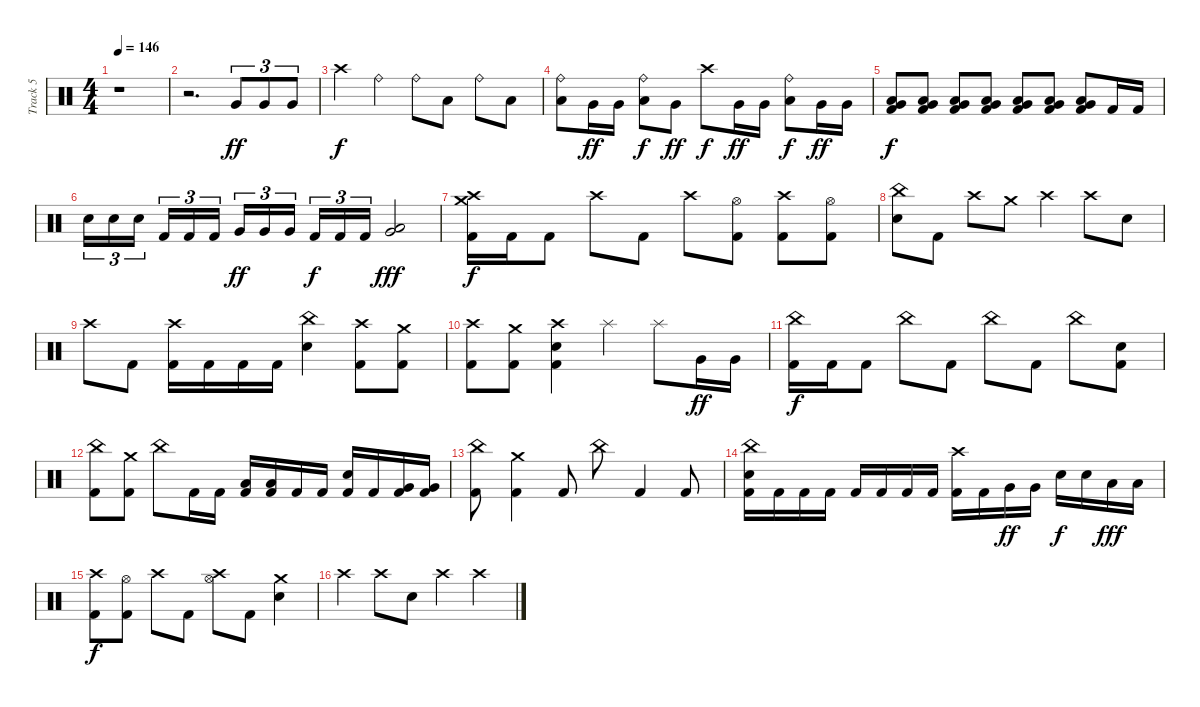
\track ("Track 5" "Track 5") {instrument percussion}
\staff {score}
\articulation defaults
\ts (4 4)
\tempo 146
\clef neutral
\ks c
r.1{dy ff} |
r.2{d} "Very Low Tom (hit)".8{tu (3 2)} "Very Low Tom (hit)".8{tu (3 2)} "Very Low Tom (hit)".8{tu (3 2)} |
"Crash high (hit)".4{dy f} "Ride (bell)".4 "Ride (bell)".8 "Low Tom (hit)".8 "Ride (bell)".8 "Low Tom (hit)".8 |
("Low Tom (hit)" "Ride (bell)").8 "Very Low Tom (hit)".16{dy ff} "Very Low Tom (hit)".16 ("Low Tom (hit)" "Ride (bell)").8{dy f} "Very Low Tom (hit)".8{dy ff} "Crash high (hit)".8{dy f} "Very Low Tom (hit)".16{dy ff} "Very Low Tom (hit)".16 ("Low Tom (hit)" "Ride (bell)").8{dy f} "Very Low Tom (hit)".16{dy ff} "Very Low Tom (hit)".16 |
("Very Low Tom (hit)" "Low Floor Tom (hit)" "Kick (hit) 2").8{dy f} ("Very Low Tom (hit)" "Low Floor Tom (hit)" "Kick (hit) 2").8 ("Very Low Tom (hit)" "Low Floor Tom (hit)" "Kick (hit) 2").8 ("Very Low Tom (hit)" "Low Floor Tom (hit)" "Kick (hit) 2").8 ("Very Low Tom (hit)" "Low Floor Tom (hit)" "Kick (hit) 2").8 ("Very Low Tom (hit)" "Low Floor Tom (hit)" "Kick (hit) 2").8 ("Very Low Tom (hit)" "Low Floor Tom (hit)" "Kick (hit) 2").8 "Kick (hit) 2".16 "Kick (hit) 2".16 |
"Electric Snare (hit)".16{tu (3 2)} "Electric Snare (hit)".16{tu (3 2)} "Electric Snare (hit)".16{tu (3 2)} "Kick (hit) 2".16{tu (3 2)} "Kick (hit) 2".16{tu (3 2)} "Kick (hit) 2".16{tu (3 2)} "Very Low Tom (hit)".16{tu (3 2) dy ff} "Very Low Tom (hit)".16{tu (3 2)} "Very Low Tom (hit)".16{tu (3 2)} "Kick (hit) 2".16{tu (3 2) dy f} "Kick (hit) 2".16{tu (3 2)} "Kick (hit) 2".16{tu (3 2)} ("Very Low Tom (hit)" "Low Floor Tom (hit)").2{dy fff} |
("Crash medium (hit)" "Crash high (hit)" "Kick (hit) 2").16{dy f} "Kick (hit) 2".16 "Kick (hit) 2".8 "Crash high (hit)".8 "Kick (hit) 2".8 "Crash high (hit)".8 ("Hi-Hat (open)" "Kick (hit) 2").8 ("Crash high (hit)" "Kick (hit) 2").8 ("Hi-Hat (open)" "Kick (hit) 2").8 |
("China (hit)" "Electric Snare (hit)").8 "Kick (hit) 2".8 "Crash high (hit)".8 "Crash medium (hit)".8 "Crash high (hit)".4 "Crash high (hit)".8 "Electric Snare (hit)".8 |
"Crash high (hit)".8 "Kick (hit) 2".8 ("Crash high (hit)" "Kick (hit) 2").16 "Kick (hit) 2".16 "Kick (hit) 2".16 "Kick (hit) 2".16 ("China (hit)" "Electric Snare (hit)").4 ("Crash high (hit)" "Kick (hit) 2").8 ("Crash medium (hit)" "Kick (hit) 2").8 |
("Crash high (hit)" "Kick (hit) 2").8 ("Crash medium (hit)" "Kick (hit) 2").8 ("Crash high (hit)" "Electric Snare (hit)" "Kick (hit) 2").4 "Splash (hit)".4 "Splash (hit)".8 "Very Low Tom (hit)".16{dy ff} "Very Low Tom (hit)".16 |
("China (hit)" "Kick (hit) 2").16{dy f} "Kick (hit) 2".16 "Kick (hit) 2".8 "China (hit)".8 "Kick (hit) 2".8 "China (hit)".8 "Kick (hit) 2".8 "China (hit)".8 ("Electric Snare (hit)" "Kick (hit) 2").8 |
("China (hit)" "Kick (hit) 2").8 ("Crash medium (hit)" "Kick (hit) 2").8 "China (hit)".8 "Kick (hit) 2".16 "Kick (hit) 2".16 ("Low Tom (hit)" "Kick (hit) 2").16 ("Low Tom (hit)" "Kick (hit) 2").16 "Kick (hit) 2".16 "Kick (hit) 2".16 ("Electric Snare (hit)" "Kick (hit) 2").16 "Kick (hit) 2".16 ("Very Low Tom (hit)" "Kick (hit) 2").16 ("Very Low Tom (hit)" "Kick (hit) 2").16 |
("China (hit)" "Kick (hit) 2").8 ("Crash medium (hit)" "Kick (hit) 2").4 "Kick (hit) 2".8 "China (hit)".8 "Kick (hit) 2".4 "Kick (hit) 2".8 |
("China (hit)" "Electric Snare (hit)" "Kick (hit) 2").16 "Kick (hit) 2".16 "Kick (hit) 2".16 "Kick (hit) 2".16 "Kick (hit) 2".16 "Kick (hit) 2".16 "Kick (hit) 2".16 "Kick (hit) 2".16 ("Crash high (hit)" "Kick (hit) 2").16 "Kick (hit) 2".16 "Very Low Tom (hit)".16{dy ff} "Very Low Tom (hit)".16 "Electric Snare (hit)".16{dy f} "Electric Snare (hit)".16 "Low Floor Tom (hit)".16{dy fff} "Low Floor Tom (hit)".16 |
("Crash high (hit)" "Kick (hit) 2").8{dy f} ("Hi-Hat (open)" "Kick (hit) 2").8 "Crash high (hit)".8 "Kick (hit) 2".8 ("Crash high (hit)" "Hi-Hat (open)").8 "Kick (hit) 2".8 ("Crash medium (hit)" "Electric Snare (hit)").4 |
"Crash high (hit)".4 "Crash high (hit)".8 "Electric Snare (hit)".8 "Crash high (hit)".4 "Crash high (hit)".4
